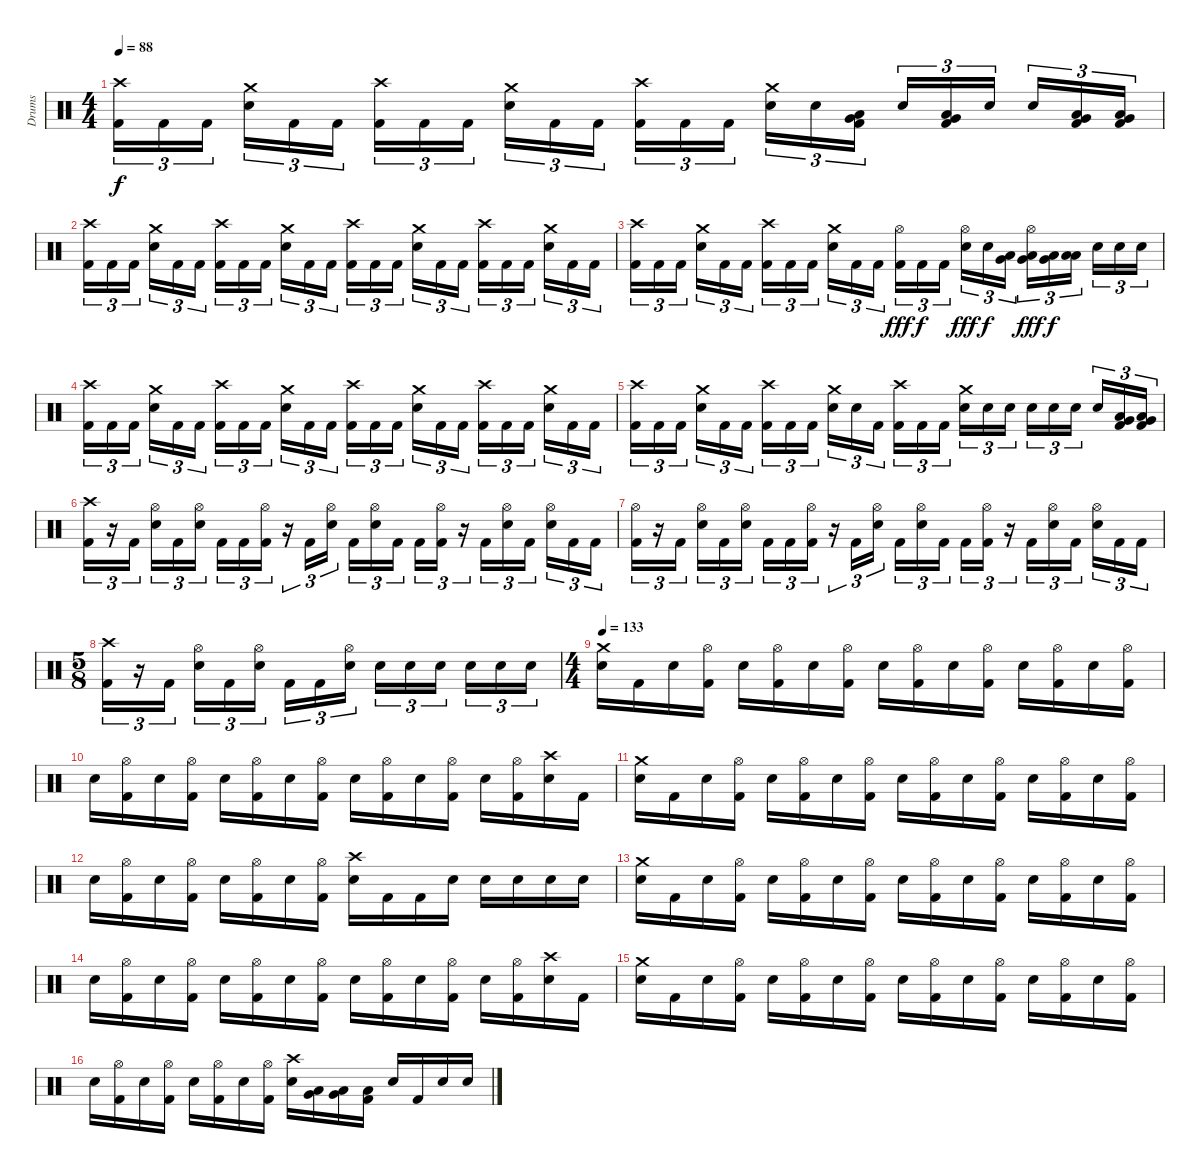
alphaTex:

\track ("Drums" "Drums") {instrument percussion}
\staff {score}
\articulation defaults
\ts (4 4)
\tempo 88
\clef neutral
\ks c
("Crash high (hit)" "Kick (hit) 2").16{tu (3 2) dy f} "Kick (hit) 2".16{tu (3 2)} "Kick (hit) 2".16{tu (3 2)} ("Crash medium (hit)" "Electric Snare (hit)").16{tu (3 2)} "Kick (hit) 2".16{tu (3 2)} "Kick (hit) 2".16{tu (3 2)} ("Crash high (hit)" "Kick (hit) 2").16{tu (3 2)} "Kick (hit) 2".16{tu (3 2)} "Kick (hit) 2".16{tu (3 2)} ("Crash medium (hit)" "Electric Snare (hit)").16{tu (3 2)} "Kick (hit) 2".16{tu (3 2)} "Kick (hit) 2".16{tu (3 2)} ("Crash high (hit)" "Kick (hit) 2").16{tu (3 2)} "Kick (hit) 2".16{tu (3 2)} "Kick (hit) 2".16{tu (3 2)} ("Crash medium (hit)" "Electric Snare (hit)").16{tu (3 2)} "Electric Snare (hit)".16{tu (3 2)} ("Very Low Tom (hit)" "Low Tom (hit)" "Kick (hit) 2").16{tu (3 2)} "Electric Snare (hit)".16{tu (3 2)} ("Low Floor Tom (hit)" "Very Low Tom (hit)" "Kick (hit) 2").16{tu (3 2)} "Electric Snare (hit)".16{tu (3 2)} "Electric Snare (hit)".16{tu (3 2)} ("Very Low Tom (hit)" "Low Tom (hit)" "Kick (hit) 2").16{tu (3 2)} ("Low Floor Tom (hit)" "Very Low Tom (hit)" "Kick (hit) 2").16{tu (3 2)} |
("Crash high (hit)" "Kick (hit) 2").16{tu (3 2)} "Kick (hit) 2".16{tu (3 2)} "Kick (hit) 2".16{tu (3 2)} ("Crash medium (hit)" "Electric Snare (hit)").16{tu (3 2)} "Kick (hit) 2".16{tu (3 2)} "Kick (hit) 2".16{tu (3 2)} ("Crash high (hit)" "Kick (hit) 2").16{tu (3 2)} "Kick (hit) 2".16{tu (3 2)} "Kick (hit) 2".16{tu (3 2)} ("Crash medium (hit)" "Electric Snare (hit)").16{tu (3 2)} "Kick (hit) 2".16{tu (3 2)} "Kick (hit) 2".16{tu (3 2)} ("Crash high (hit)" "Kick (hit) 2").16{tu (3 2)} "Kick (hit) 2".16{tu (3 2)} "Kick (hit) 2".16{tu (3 2)} ("Crash medium (hit)" "Electric Snare (hit)").16{tu (3 2)} "Kick (hit) 2".16{tu (3 2)} "Kick (hit) 2".16{tu (3 2)} ("Crash high (hit)" "Kick (hit) 2").16{tu (3 2)} "Kick (hit) 2".16{tu (3 2)} "Kick (hit) 2".16{tu (3 2)} ("Crash medium (hit)" "Electric Snare (hit)").16{tu (3 2)} "Kick (hit) 2".16{tu (3 2)} "Kick (hit) 2".16{tu (3 2)} |
("Crash high (hit)" "Kick (hit) 2").16{tu (3 2)} "Kick (hit) 2".16{tu (3 2)} "Kick (hit) 2".16{tu (3 2)} ("Crash medium (hit)" "Electric Snare (hit)").16{tu (3 2)} "Kick (hit) 2".16{tu (3 2)} "Kick (hit) 2".16{tu (3 2)} ("Crash high (hit)" "Kick (hit) 2").16{tu (3 2)} "Kick (hit) 2".16{tu (3 2)} "Kick (hit) 2".16{tu (3 2)} ("Crash medium (hit)" "Electric Snare (hit)").16{tu (3 2)} "Kick (hit) 2".16{tu (3 2)} "Kick (hit) 2".16{tu (3 2)} ("Hi-Hat (open)" "Kick (hit) 2").16{tu (3 2) dy fff} "Kick (hit) 2".16{tu (3 2) dy f} "Kick (hit) 2".16{tu (3 2)} ("Hi-Hat (open)" "Electric Snare (hit)").16{tu (3 2) dy fff} "Electric Snare (hit)".16{tu (3 2) dy f} ("Low Tom (hit)" "Very Low Tom (hit)").16{tu (3 2)} ("Hi-Hat (open)" "Very Low Tom (hit)" "Low Floor Tom (hit)").16{tu (3 2) dy fff} ("Very Low Tom (hit)" "Low Floor Tom (hit)").16{tu (3 2) dy f} ("Low Floor Tom (hit)" "Low Floor Tom (hit)").16{tu (3 2)} "Electric Snare (hit)".16{tu (3 2)} "Electric Snare (hit)".16{tu (3 2)} "Electric Snare (hit)".16{tu (3 2)} |
("Crash high (hit)" "Kick (hit) 2").16{tu (3 2)} "Kick (hit) 2".16{tu (3 2)} "Kick (hit) 2".16{tu (3 2)} ("Crash medium (hit)" "Electric Snare (hit)").16{tu (3 2)} "Kick (hit) 2".16{tu (3 2)} "Kick (hit) 2".16{tu (3 2)} ("Crash high (hit)" "Kick (hit) 2").16{tu (3 2)} "Kick (hit) 2".16{tu (3 2)} "Kick (hit) 2".16{tu (3 2)} ("Crash medium (hit)" "Electric Snare (hit)").16{tu (3 2)} "Kick (hit) 2".16{tu (3 2)} "Kick (hit) 2".16{tu (3 2)} ("Crash high (hit)" "Kick (hit) 2").16{tu (3 2)} "Kick (hit) 2".16{tu (3 2)} "Kick (hit) 2".16{tu (3 2)} ("Crash medium (hit)" "Electric Snare (hit)").16{tu (3 2)} "Kick (hit) 2".16{tu (3 2)} "Kick (hit) 2".16{tu (3 2)} ("Crash high (hit)" "Kick (hit) 2").16{tu (3 2)} "Kick (hit) 2".16{tu (3 2)} "Kick (hit) 2".16{tu (3 2)} ("Crash medium (hit)" "Electric Snare (hit)").16{tu (3 2)} "Kick (hit) 2".16{tu (3 2)} "Kick (hit) 2".16{tu (3 2)} |
("Crash high (hit)" "Kick (hit) 2").16{tu (3 2)} "Kick (hit) 2".16{tu (3 2)} "Kick (hit) 2".16{tu (3 2)} ("Crash medium (hit)" "Electric Snare (hit)").16{tu (3 2)} "Kick (hit) 2".16{tu (3 2)} "Kick (hit) 2".16{tu (3 2)} ("Crash high (hit)" "Kick (hit) 2").16{tu (3 2)} "Kick (hit) 2".16{tu (3 2)} "Kick (hit) 2".16{tu (3 2)} ("Crash medium (hit)" "Electric Snare (hit)").16{tu (3 2)} "Electric Snare (hit)".16{tu (3 2)} "Kick (hit) 2".16{tu (3 2)} ("Crash high (hit)" "Kick (hit) 2").16{tu (3 2)} "Kick (hit) 2".16{tu (3 2)} "Kick (hit) 2".16{tu (3 2)} ("Crash medium (hit)" "Electric Snare (hit)").16{tu (3 2)} "Electric Snare (hit)".16{tu (3 2)} "Electric Snare (hit)".16{tu (3 2)} "Electric Snare (hit)".16{tu (3 2)} "Electric Snare (hit)".16{tu (3 2)} "Electric Snare (hit)".16{tu (3 2)} "Electric Snare (hit)".16{tu (3 2)} ("Very Low Tom (hit)" "Low Tom (hit)" "Kick (hit) 2").16{tu (3 2)} ("Low Floor Tom (hit)" "Very Low Tom (hit)" "Kick (hit) 2").16{tu (3 2)} |
("Crash high (hit)" "Kick (hit) 2").16{tu (3 2)} r.16{tu (3 2)} "Kick (hit) 2".16{tu (3 2)} ("Hi-Hat (open)" "Electric Snare (hit)").16{tu (3 2)} "Kick (hit) 2".16{tu (3 2)} ("Hi-Hat (open)" "Electric Snare (hit)").16{tu (3 2)} "Kick (hit) 2".16{tu (3 2)} "Kick (hit) 2".16{tu (3 2)} ("Hi-Hat (open)" "Kick (hit) 2").16{tu (3 2)} r.16{tu (3 2)} "Kick (hit) 2".16{tu (3 2)} ("Hi-Hat (open)" "Electric Snare (hit)").16{tu (3 2)} "Kick (hit) 2".16{tu (3 2)} ("Hi-Hat (open)" "Electric Snare (hit)").16{tu (3 2)} "Kick (hit) 2".16{tu (3 2)} "Kick (hit) 2".16{tu (3 2)} ("Hi-Hat (open)" "Kick (hit) 2").16{tu (3 2)} r.16{tu (3 2)} "Kick (hit) 2".16{tu (3 2)} ("Hi-Hat (open)" "Electric Snare (hit)").16{tu (3 2)} "Kick (hit) 2".16{tu (3 2)} ("Hi-Hat (open)" "Electric Snare (hit)").16{tu (3 2)} "Kick (hit) 2".16{tu (3 2)} "Kick (hit) 2".16{tu (3 2)} |
("Hi-Hat (open)" "Kick (hit) 2").16{tu (3 2)} r.16{tu (3 2)} "Kick (hit) 2".16{tu (3 2)} ("Hi-Hat (open)" "Electric Snare (hit)").16{tu (3 2)} "Kick (hit) 2".16{tu (3 2)} ("Hi-Hat (open)" "Electric Snare (hit)").16{tu (3 2)} "Kick (hit) 2".16{tu (3 2)} "Kick (hit) 2".16{tu (3 2)} ("Hi-Hat (open)" "Kick (hit) 2").16{tu (3 2)} r.16{tu (3 2)} "Kick (hit) 2".16{tu (3 2)} ("Hi-Hat (open)" "Electric Snare (hit)").16{tu (3 2)} "Kick (hit) 2".16{tu (3 2)} ("Hi-Hat (open)" "Electric Snare (hit)").16{tu (3 2)} "Kick (hit) 2".16{tu (3 2)} "Kick (hit) 2".16{tu (3 2)} ("Hi-Hat (open)" "Kick (hit) 2").16{tu (3 2)} r.16{tu (3 2)} "Kick (hit) 2".16{tu (3 2)} ("Hi-Hat (open)" "Electric Snare (hit)").16{tu (3 2)} "Kick (hit) 2".16{tu (3 2)} ("Hi-Hat (open)" "Electric Snare (hit)").16{tu (3 2)} "Kick (hit) 2".16{tu (3 2)} "Kick (hit) 2".16{tu (3 2)} |
\ts (5 8)
("Crash high (hit)" "Kick (hit) 2").16{tu (3 2)} r.16{tu (3 2)} "Kick (hit) 2".16{tu (3 2)} ("Hi-Hat (open)" "Electric Snare (hit)").16{tu (3 2)} "Kick (hit) 2".16{tu (3 2)} ("Hi-Hat (open)" "Electric Snare (hit)").16{tu (3 2)} "Kick (hit) 2".16{tu (3 2)} "Kick (hit) 2".16{tu (3 2)} ("Hi-Hat (open)" "Electric Snare (hit)").16{tu (3 2)} "Electric Snare (hit)".16{tu (3 2)} "Electric Snare (hit)".16{tu (3 2)} "Electric Snare (hit)".16{tu (3 2)} "Electric Snare (hit)".16{tu (3 2)} "Electric Snare (hit)".16{tu (3 2)} "Electric Snare (hit)".16{tu (3 2)} |
\ts (4 4)
\tempo 133
("Crash medium (hit)" "Electric Snare (hit)").16 "Kick (hit) 2".16 "Electric Snare (hit)".16 ("Hi-Hat (open)" "Kick (hit) 2").16 "Electric Snare (hit)".16 ("Hi-Hat (open)" "Kick (hit) 2").16 "Electric Snare (hit)".16 ("Hi-Hat (open)" "Kick (hit) 2").16 "Electric Snare (hit)".16 ("Hi-Hat (open)" "Kick (hit) 2").16 "Electric Snare (hit)".16 ("Hi-Hat (open)" "Kick (hit) 2").16 "Electric Snare (hit)".16 ("Hi-Hat (open)" "Kick (hit) 2").16 "Electric Snare (hit)".16 ("Hi-Hat (open)" "Kick (hit) 2").16 |
"Electric Snare (hit)".16 ("Hi-Hat (open)" "Kick (hit) 2").16 "Electric Snare (hit)".16 ("Hi-Hat (open)" "Kick (hit) 2").16 "Electric Snare (hit)".16 ("Hi-Hat (open)" "Kick (hit) 2").16 "Electric Snare (hit)".16 ("Hi-Hat (open)" "Kick (hit) 2").16 "Electric Snare (hit)".16 ("Hi-Hat (open)" "Kick (hit) 2").16 "Electric Snare (hit)".16 ("Hi-Hat (open)" "Kick (hit) 2").16 "Electric Snare (hit)".16 ("Hi-Hat (open)" "Kick (hit) 2").16 ("Crash high (hit)" "Electric Snare (hit)").16 "Kick (hit) 2".16 |
("Crash medium (hit)" "Electric Snare (hit)").16 "Kick (hit) 2".16 "Electric Snare (hit)".16 ("Hi-Hat (open)" "Kick (hit) 2").16 "Electric Snare (hit)".16 ("Hi-Hat (open)" "Kick (hit) 2").16 "Electric Snare (hit)".16 ("Hi-Hat (open)" "Kick (hit) 2").16 "Electric Snare (hit)".16 ("Hi-Hat (open)" "Kick (hit) 2").16 "Electric Snare (hit)".16 ("Hi-Hat (open)" "Kick (hit) 2").16 "Electric Snare (hit)".16 ("Hi-Hat (open)" "Kick (hit) 2").16 "Electric Snare (hit)".16 ("Hi-Hat (open)" "Kick (hit) 2").16 |
"Electric Snare (hit)".16 ("Hi-Hat (open)" "Kick (hit) 2").16 "Electric Snare (hit)".16 ("Hi-Hat (open)" "Kick (hit) 2").16 "Electric Snare (hit)".16 ("Hi-Hat (open)" "Kick (hit) 2").16 "Electric Snare (hit)".16 ("Hi-Hat (open)" "Kick (hit) 2").16 ("Crash high (hit)" "Electric Snare (hit)").16 "Kick (hit) 2".16 "Kick (hit) 2".16 "Electric Snare (hit)".16 "Electric Snare (hit)".16 "Electric Snare (hit)".16 "Electric Snare (hit)".16 "Electric Snare (hit)".16 |
("Crash medium (hit)" "Electric Snare (hit)").16 "Kick (hit) 2".16 "Electric Snare (hit)".16 ("Hi-Hat (open)" "Kick (hit) 2").16 "Electric Snare (hit)".16 ("Hi-Hat (open)" "Kick (hit) 2").16 "Electric Snare (hit)".16 ("Hi-Hat (open)" "Kick (hit) 2").16 "Electric Snare (hit)".16 ("Hi-Hat (open)" "Kick (hit) 2").16 "Electric Snare (hit)".16 ("Hi-Hat (open)" "Kick (hit) 2").16 "Electric Snare (hit)".16 ("Hi-Hat (open)" "Kick (hit) 2").16 "Electric Snare (hit)".16 ("Hi-Hat (open)" "Kick (hit) 2").16 |
"Electric Snare (hit)".16 ("Hi-Hat (open)" "Kick (hit) 2").16 "Electric Snare (hit)".16 ("Hi-Hat (open)" "Kick (hit) 2").16 "Electric Snare (hit)".16 ("Hi-Hat (open)" "Kick (hit) 2").16 "Electric Snare (hit)".16 ("Hi-Hat (open)" "Kick (hit) 2").16 "Electric Snare (hit)".16 ("Hi-Hat (open)" "Kick (hit) 2").16 "Electric Snare (hit)".16 ("Hi-Hat (open)" "Kick (hit) 2").16 "Electric Snare (hit)".16 ("Hi-Hat (open)" "Kick (hit) 2").16 ("Crash high (hit)" "Electric Snare (hit)").16 "Kick (hit) 2".16 |
("Crash medium (hit)" "Electric Snare (hit)").16 "Kick (hit) 2".16 "Electric Snare (hit)".16 ("Hi-Hat (open)" "Kick (hit) 2").16 "Electric Snare (hit)".16 ("Hi-Hat (open)" "Kick (hit) 2").16 "Electric Snare (hit)".16 ("Hi-Hat (open)" "Kick (hit) 2").16 "Electric Snare (hit)".16 ("Hi-Hat (open)" "Kick (hit) 2").16 "Electric Snare (hit)".16 ("Hi-Hat (open)" "Kick (hit) 2").16 "Electric Snare (hit)".16 ("Hi-Hat (open)" "Kick (hit) 2").16 "Electric Snare (hit)".16 ("Hi-Hat (open)" "Kick (hit) 2").16 |
"Electric Snare (hit)".16 ("Hi-Hat (open)" "Kick (hit) 2").16 "Electric Snare (hit)".16 ("Hi-Hat (open)" "Kick (hit) 2").16 "Electric Snare (hit)".16 ("Hi-Hat (open)" "Kick (hit) 2").16 "Electric Snare (hit)".16 ("Hi-Hat (open)" "Kick (hit) 2").16 ("Crash high (hit)" "Electric Snare (hit)").16 ("Very Low Tom (hit)" "Low Tom (hit)").16 ("Low Floor Tom (hit)" "Very Low Tom (hit)").16 ("Low Floor Tom (hit)" "Kick (hit) 2").16 "Electric Snare (hit)".16 "Kick (hit) 2".16 "Electric Snare (hit)".16 "Electric Snare (hit)".16
